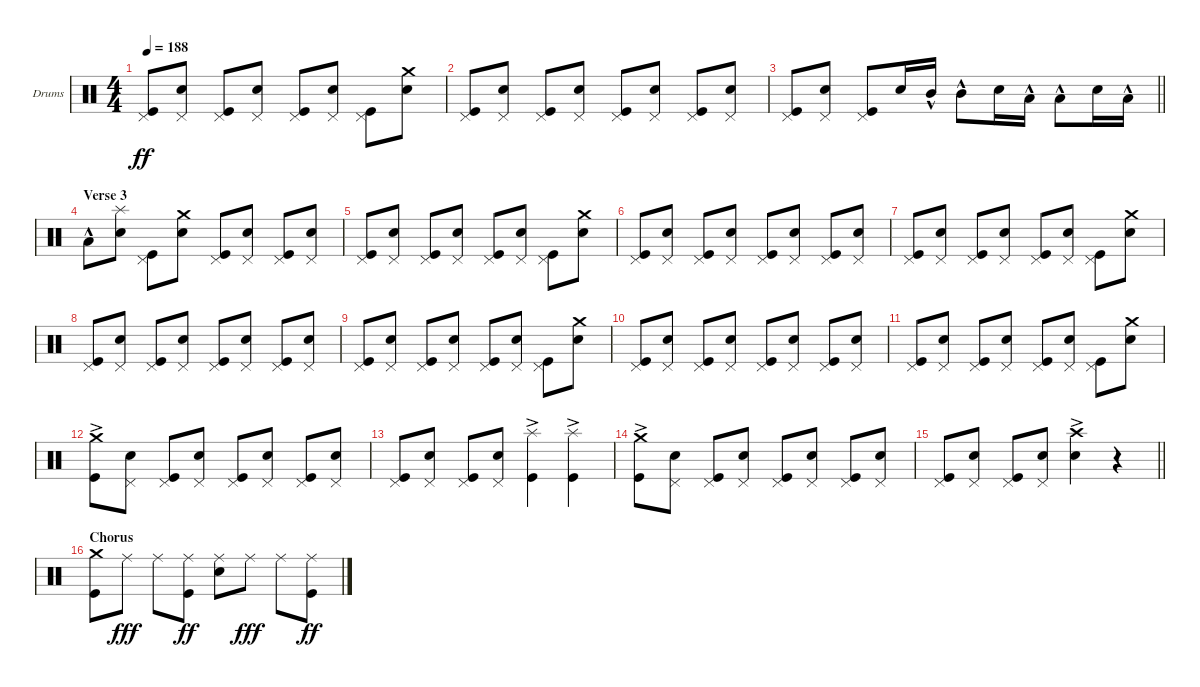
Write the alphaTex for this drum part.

\bracketExtendMode groupsimilarinstruments
\firstSystemTrackNameOrientation horizontal
\otherSystemsTrackNameOrientation horizontal
\track ("Drums" "Drums") {instrument percussion}
\staff {score}
\articulation defaults
\ts (4 4)
\tempo 188
\clef neutral
\ks c
("Kick (hit)" "Pedal Hi-Hat (hit)").8{dy ff} ("Snare (hit) 2" "Pedal Hi-Hat (hit)").8 ("Kick (hit)" "Pedal Hi-Hat (hit)").8 ("Snare (hit) 2" "Pedal Hi-Hat (hit)").8 ("Kick (hit)" "Pedal Hi-Hat (hit)").8 ("Snare (hit) 2" "Pedal Hi-Hat (hit)").8 ("Kick (hit)" "Pedal Hi-Hat (hit)").8 ("Snare (hit) 2" "Crash medium (hit)").8 |
("Kick (hit)" "Pedal Hi-Hat (hit)").8 ("Snare (hit) 2" "Pedal Hi-Hat (hit)").8 ("Kick (hit)" "Pedal Hi-Hat (hit)").8 ("Snare (hit) 2" "Pedal Hi-Hat (hit)").8 ("Kick (hit)" "Pedal Hi-Hat (hit)").8 ("Snare (hit) 2" "Pedal Hi-Hat (hit)").8 ("Kick (hit)" "Pedal Hi-Hat (hit)").8 ("Snare (hit) 2" "Pedal Hi-Hat (hit)").8 |
\barLineRight lightlight
("Kick (hit)" "Pedal Hi-Hat (hit)").8 ("Snare (hit) 2" "Pedal Hi-Hat (hit)").8 ("Kick (hit)" "Pedal Hi-Hat (hit)").8 "Snare (hit) 2".16 "Mid Tom (hit)"{hac}.16 "Mid Tom (hit)"{hac}.8 "Snare (hit) 2".16 "Low Tom (hit)"{hac}.16 "Low Tom (hit)"{hac}.8 "Snare (hit) 2".16 "Low Tom (hit)"{hac}.16 |
\section ("" "Verse 3")
"Low Tom (hit)"{hac}.8 ("Snare (hit) 2" "Splash (hit)").8 ("Kick (hit)" "Pedal Hi-Hat (hit)").8 ("Snare (hit) 2" "Crash medium (hit)").8 ("Kick (hit)" "Pedal Hi-Hat (hit)").8 ("Snare (hit) 2" "Pedal Hi-Hat (hit)").8 ("Kick (hit)" "Pedal Hi-Hat (hit)").8 ("Snare (hit) 2" "Pedal Hi-Hat (hit)").8 |
("Kick (hit)" "Pedal Hi-Hat (hit)").8 ("Snare (hit) 2" "Pedal Hi-Hat (hit)").8 ("Kick (hit)" "Pedal Hi-Hat (hit)").8 ("Snare (hit) 2" "Pedal Hi-Hat (hit)").8 ("Kick (hit)" "Pedal Hi-Hat (hit)").8 ("Snare (hit) 2" "Pedal Hi-Hat (hit)").8 ("Kick (hit)" "Pedal Hi-Hat (hit)").8 ("Snare (hit) 2" "Crash medium (hit)").8 |
("Kick (hit)" "Pedal Hi-Hat (hit)").8 ("Snare (hit) 2" "Pedal Hi-Hat (hit)").8 ("Kick (hit)" "Pedal Hi-Hat (hit)").8 ("Snare (hit) 2" "Pedal Hi-Hat (hit)").8 ("Kick (hit)" "Pedal Hi-Hat (hit)").8 ("Snare (hit) 2" "Pedal Hi-Hat (hit)").8 ("Kick (hit)" "Pedal Hi-Hat (hit)").8 ("Snare (hit) 2" "Pedal Hi-Hat (hit)").8 |
("Kick (hit)" "Pedal Hi-Hat (hit)").8 ("Snare (hit) 2" "Pedal Hi-Hat (hit)").8 ("Kick (hit)" "Pedal Hi-Hat (hit)").8 ("Snare (hit) 2" "Pedal Hi-Hat (hit)").8 ("Kick (hit)" "Pedal Hi-Hat (hit)").8 ("Snare (hit) 2" "Pedal Hi-Hat (hit)").8 ("Kick (hit)" "Pedal Hi-Hat (hit)").8 ("Snare (hit) 2" "Crash medium (hit)").8 |
("Kick (hit)" "Pedal Hi-Hat (hit)").8 ("Snare (hit) 2" "Pedal Hi-Hat (hit)").8 ("Kick (hit)" "Pedal Hi-Hat (hit)").8 ("Snare (hit) 2" "Pedal Hi-Hat (hit)").8 ("Kick (hit)" "Pedal Hi-Hat (hit)").8 ("Snare (hit) 2" "Pedal Hi-Hat (hit)").8 ("Kick (hit)" "Pedal Hi-Hat (hit)").8 ("Snare (hit) 2" "Pedal Hi-Hat (hit)").8 |
("Kick (hit)" "Pedal Hi-Hat (hit)").8 ("Snare (hit) 2" "Pedal Hi-Hat (hit)").8 ("Kick (hit)" "Pedal Hi-Hat (hit)").8 ("Snare (hit) 2" "Pedal Hi-Hat (hit)").8 ("Kick (hit)" "Pedal Hi-Hat (hit)").8 ("Snare (hit) 2" "Pedal Hi-Hat (hit)").8 ("Kick (hit)" "Pedal Hi-Hat (hit)").8 ("Snare (hit) 2" "Crash medium (hit)").8 |
("Kick (hit)" "Pedal Hi-Hat (hit)").8 ("Snare (hit) 2" "Pedal Hi-Hat (hit)").8 ("Kick (hit)" "Pedal Hi-Hat (hit)").8 ("Snare (hit) 2" "Pedal Hi-Hat (hit)").8 ("Kick (hit)" "Pedal Hi-Hat (hit)").8 ("Snare (hit) 2" "Pedal Hi-Hat (hit)").8 ("Kick (hit)" "Pedal Hi-Hat (hit)").8 ("Snare (hit) 2" "Pedal Hi-Hat (hit)").8 |
("Kick (hit)" "Pedal Hi-Hat (hit)").8 ("Snare (hit) 2" "Pedal Hi-Hat (hit)").8 ("Kick (hit)" "Pedal Hi-Hat (hit)").8 ("Snare (hit) 2" "Pedal Hi-Hat (hit)").8 ("Kick (hit)" "Pedal Hi-Hat (hit)").8 ("Snare (hit) 2" "Pedal Hi-Hat (hit)").8 ("Kick (hit)" "Pedal Hi-Hat (hit)").8 ("Snare (hit) 2" "Crash medium (hit)").8 |
("Kick (hit)" "Crash medium (hit)"{ac}).8 ("Snare (hit) 2" "Pedal Hi-Hat (hit)").8 ("Kick (hit)" "Pedal Hi-Hat (hit)").8 ("Snare (hit) 2" "Pedal Hi-Hat (hit)").8 ("Kick (hit)" "Pedal Hi-Hat (hit)").8 ("Snare (hit) 2" "Pedal Hi-Hat (hit)").8 ("Kick (hit)" "Pedal Hi-Hat (hit)").8 ("Snare (hit) 2" "Pedal Hi-Hat (hit)").8 |
("Kick (hit)" "Pedal Hi-Hat (hit)").8 ("Snare (hit) 2" "Pedal Hi-Hat (hit)").8 ("Kick (hit)" "Pedal Hi-Hat (hit)").8 ("Snare (hit) 2" "Pedal Hi-Hat (hit)").8 ("Kick (hit)" "Splash (hit)"{ac}).4 ("Kick (hit)" "Splash (hit)"{ac}).4 |
("Kick (hit)" "Crash medium (hit)"{ac}).8 ("Snare (hit) 2" "Pedal Hi-Hat (hit)").8 ("Kick (hit)" "Pedal Hi-Hat (hit)").8 ("Snare (hit) 2" "Pedal Hi-Hat (hit)").8 ("Kick (hit)" "Pedal Hi-Hat (hit)").8 ("Snare (hit) 2" "Pedal Hi-Hat (hit)").8 ("Kick (hit)" "Pedal Hi-Hat (hit)").8 ("Snare (hit) 2" "Pedal Hi-Hat (hit)").8 |
\barLineRight lightlight
("Kick (hit)" "Pedal Hi-Hat (hit)").8 ("Snare (hit) 2" "Pedal Hi-Hat (hit)").8 ("Kick (hit)" "Pedal Hi-Hat (hit)").8 ("Snare (hit) 2" "Pedal Hi-Hat (hit)").8 ("Snare (hit) 2" "Crash high (hit)"{ac}).4 r.4 |
\section ("" "Chorus")
("Kick (hit)" "Crash medium (hit)").8 "Ride (middle)".8{dy fff} "Ride (middle)".8 ("Kick (hit)" "Ride (middle)").8{dy ff} ("Snare (hit) 2" "Ride (middle)").8 "Ride (middle)".8{dy fff} "Ride (middle)".8 ("Ride (middle)" "Kick (hit)").8{dy ff}
